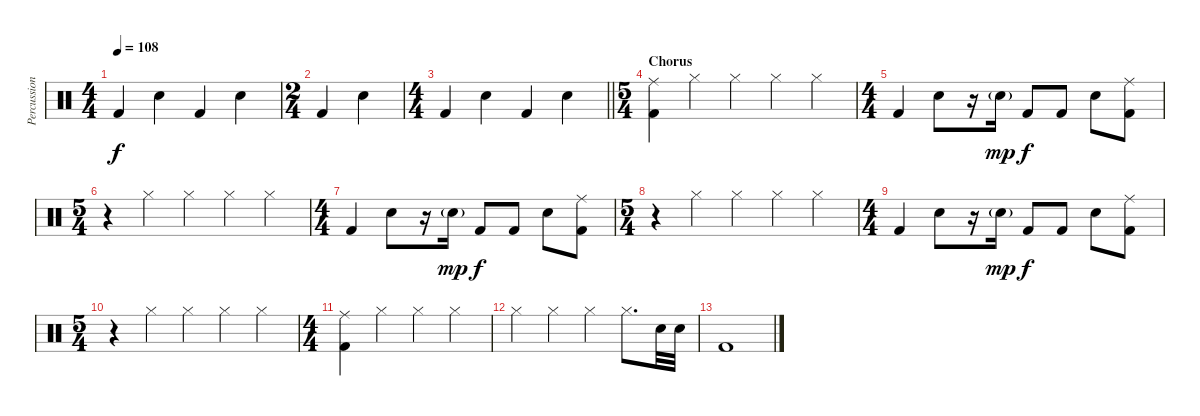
\track ("Percussion" "Percussion") {instrument percussion}
\staff {score}
\articulation defaults
\ts (4 4)
\tempo 108
\clef neutral
\ks c "Kick (hit) 2".4{dy f} "Snare (hit) 2".4 "Kick (hit) 2".4 "Snare (hit) 2".4
|
\ts (2 4)
"Kick (hit) 2".4 "Snare (hit) 2".4 |
\ts (4 4)
\barLineRight lightlight "Kick (hit) 2".4 "Snare (hit) 2".4 "Kick (hit) 2".4 "Snare (hit) 2".4
|
\ts (5 4)
\section ("" "Chorus")
("Ride (middle)" "Kick (hit) 2").4 "Hi-Hat (closed)".4 "Hi-Hat (closed)".4 "Hi-Hat (closed)".4 "Hi-Hat (closed)".4 |
\ts (4 4)
"Kick (hit) 2".4 "Snare (hit) 2".8 r.16 "Snare (hit) 2"{g}.16{dy mp} "Kick (hit) 2".8{dy f} "Kick (hit) 2".8 "Snare (hit) 2".8 ("Ride (middle)" "Kick (hit) 2").8 |
\ts (5 4)
r.4 "Hi-Hat (closed)".4 "Hi-Hat (closed)".4 "Hi-Hat (closed)".4 "Hi-Hat (closed)".4 |
\ts (4 4)
"Kick (hit) 2".4 "Snare (hit) 2".8 r.16 "Snare (hit) 2"{g}.16{dy mp} "Kick (hit) 2".8{dy f} "Kick (hit) 2".8 "Snare (hit) 2".8 ("Ride (middle)" "Kick (hit) 2").8 |
\ts (5 4)
r.4 "Hi-Hat (closed)".4 "Hi-Hat (closed)".4 "Hi-Hat (closed)".4 "Hi-Hat (closed)".4 |
\ts (4 4)
"Kick (hit) 2".4 "Snare (hit) 2".8 r.16 "Snare (hit) 2"{g}.16{dy mp} "Kick (hit) 2".8{dy f} "Kick (hit) 2".8 "Snare (hit) 2".8 ("Ride (middle)" "Kick (hit) 2").8 |
\ts (5 4)
r.4 "Hi-Hat (closed)".4 "Hi-Hat (closed)".4 "Hi-Hat (closed)".4 "Hi-Hat (closed)".4 |
\ts (4 4)
("Ride (middle)" "Kick (hit) 2").4 "Hi-Hat (closed)".4 "Hi-Hat (closed)".4 "Hi-Hat (closed)".4 |
"Hi-Hat (closed)".4 "Hi-Hat (closed)".4 "Hi-Hat (closed)".4 "Hi-Hat (closed)".8{d} "Snare (hit) 2".32 "Snare (hit) 2".32 |
"Kick (hit) 2".1
